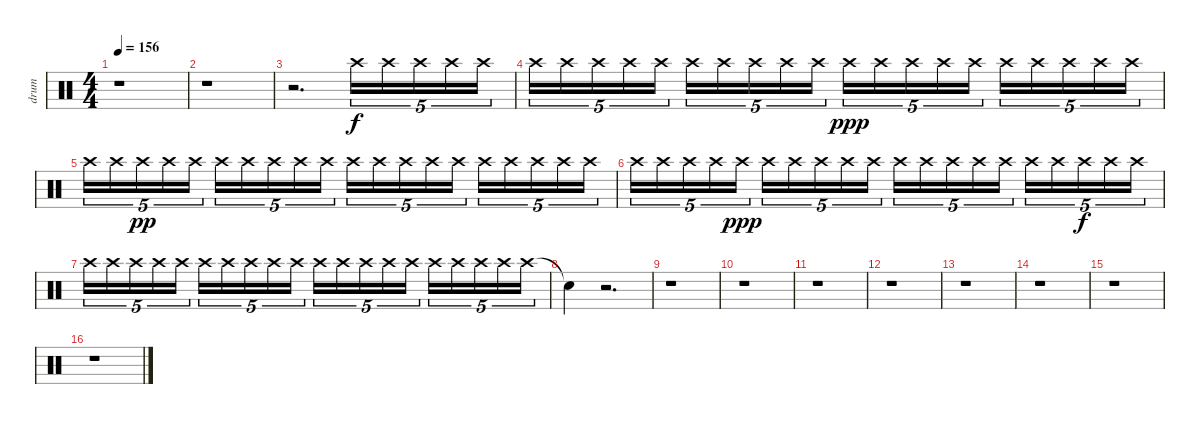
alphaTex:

\track ("drum" "drum") {instrument percussion}
\staff {score}
\articulation defaults
\ts (4 4)
\tempo 156
\clef neutral
\ks c
r.1{dy f} |
r.1 |
r.2{d} "Crash high (hit)".16{tu (5 4)} "Crash high (hit)".16{tu (5 4)} "Crash high (hit)".16{tu (5 4)} "Crash high (hit)".16{tu (5 4)} "Crash high (hit)".16{tu (5 4)} |
"Crash high (hit)".16{tu (5 4)} "Crash high (hit)".16{tu (5 4)} "Crash high (hit)".16{tu (5 4)} "Crash high (hit)".16{tu (5 4)} "Crash high (hit)".16{tu (5 4)} "Crash high (hit)".16{tu (5 4)} "Crash high (hit)".16{tu (5 4)} "Crash high (hit)".16{tu (5 4)} "Crash high (hit)".16{tu (5 4)} "Crash high (hit)".16{tu (5 4)} "Crash high (hit)".16{tu (5 4) dy ppp} "Crash high (hit)".16{tu (5 4)} "Crash high (hit)".16{tu (5 4)} "Crash high (hit)".16{tu (5 4)} "Crash high (hit)".16{tu (5 4)} "Crash high (hit)".16{tu (5 4)} "Crash high (hit)".16{tu (5 4)} "Crash high (hit)".16{tu (5 4)} "Crash high (hit)".16{tu (5 4)} "Crash high (hit)".16{tu (5 4)} |
"Crash high (hit)".16{tu (5 4)} "Crash high (hit)".16{tu (5 4)} "Crash high (hit)".16{tu (5 4) dy pp} "Crash high (hit)".16{tu (5 4)} "Crash high (hit)".16{tu (5 4)} "Crash high (hit)".16{tu (5 4)} "Crash high (hit)".16{tu (5 4)} "Crash high (hit)".16{tu (5 4)} "Crash high (hit)".16{tu (5 4)} "Crash high (hit)".16{tu (5 4)} "Crash high (hit)".16{tu (5 4)} "Crash high (hit)".16{tu (5 4)} "Crash high (hit)".16{tu (5 4)} "Crash high (hit)".16{tu (5 4)} "Crash high (hit)".16{tu (5 4)} "Crash high (hit)".16{tu (5 4)} "Crash high (hit)".16{tu (5 4)} "Crash high (hit)".16{tu (5 4)} "Crash high (hit)".16{tu (5 4)} "Crash high (hit)".16{tu (5 4)} |
"Crash high (hit)".16{tu (5 4)} "Crash high (hit)".16{tu (5 4)} "Crash high (hit)".16{tu (5 4)} "Crash high (hit)".16{tu (5 4)} "Crash high (hit)".16{tu (5 4) dy ppp} "Crash high (hit)".16{tu (5 4)} "Crash high (hit)".16{tu (5 4)} "Crash high (hit)".16{tu (5 4)} "Crash high (hit)".16{tu (5 4)} "Crash high (hit)".16{tu (5 4)} "Crash high (hit)".16{tu (5 4)} "Crash high (hit)".16{tu (5 4)} "Crash high (hit)".16{tu (5 4)} "Crash high (hit)".16{tu (5 4)} "Crash high (hit)".16{tu (5 4)} "Crash high (hit)".16{tu (5 4)} "Crash high (hit)".16{tu (5 4)} "Crash high (hit)".16{tu (5 4) dy f} "Crash high (hit)".16{tu (5 4)} "Crash high (hit)".16{tu (5 4)} |
"Crash high (hit)".16{tu (5 4)} "Crash high (hit)".16{tu (5 4)} "Crash high (hit)".16{tu (5 4)} "Crash high (hit)".16{tu (5 4)} "Crash high (hit)".16{tu (5 4)} "Crash high (hit)".16{tu (5 4)} "Crash high (hit)".16{tu (5 4)} "Crash high (hit)".16{tu (5 4)} "Crash high (hit)".16{tu (5 4)} "Crash high (hit)".16{tu (5 4)} "Crash high (hit)".16{tu (5 4)} "Crash high (hit)".16{tu (5 4)} "Crash high (hit)".16{tu (5 4)} "Crash high (hit)".16{tu (5 4)} "Crash high (hit)".16{tu (5 4)} "Crash high (hit)".16{tu (5 4)} "Crash high (hit)".16{tu (5 4)} "Crash high (hit)".16{tu (5 4)} "Crash high (hit)".16{tu (5 4)} "Crash high (hit)".16{tu (5 4)} |
"Snare (hit)"{t}.4 r.2{d} |
r.1 |
r.1 |
r.1 |
r.1 |
r.1 |
r.1 |
r.1 |
r.1
